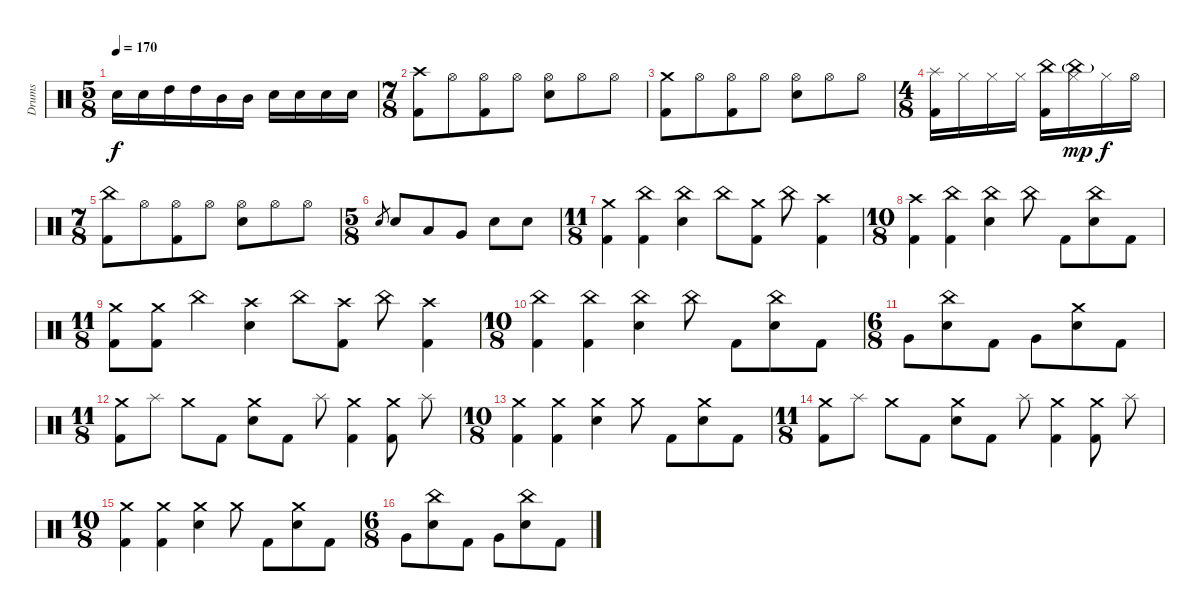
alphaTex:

\track ("Drums" "Drums") {instrument percussion}
\staff {score}
\articulation defaults
\ts (5 8)
\tempo 170
\clef neutral
\ks c "Electric Snare (hit)".16{dy f} "Electric Snare (hit)".16 "High Tom (hit)".16 "High Tom (hit)".16 "Mid Tom (hit)".16 "Mid Tom (hit)".16 "Electric Snare (hit)".16 "Electric Snare (hit)".16 "Electric Snare (hit)".16 "Electric Snare (hit)".16
|
\ts (7 8)
("Crash high (hit)" "Kick (hit) 2").8 "Hi-Hat (open)".8 ("Hi-Hat (open)" "Kick (hit) 2").8 "Hi-Hat (open)".8 ("Hi-Hat (open)" "Electric Snare (hit)").8 "Hi-Hat (open)".8 "Hi-Hat (open)".8 |
("Crash medium (hit)" "Kick (hit) 2").8 "Hi-Hat (open)".8 ("Hi-Hat (open)" "Kick (hit) 2").8 "Hi-Hat (open)".8 ("Hi-Hat (open)" "Electric Snare (hit)").8 "Hi-Hat (open)".8 "Hi-Hat (open)".8 |
\ts (4 8)
("Splash (hit)" "Kick (hit) 2").16 "Hi-Hat (closed)".16 "Hi-Hat (closed)".16 "Hi-Hat (closed)".16 ("China (hit)" "Kick (hit) 2").16 ("Hi-Hat (closed)" "China (hit)"{g}).16{dy mp} "Hi-Hat (closed)".16{dy f} "Hi-Hat (open)".16 |
\ts (7 8)
("China (hit)" "Kick (hit) 2").8 "Hi-Hat (open)".8 ("Hi-Hat (open)" "Kick (hit) 2").8 "Hi-Hat (open)".8 ("Hi-Hat (open)" "Electric Snare (hit)").8 "Hi-Hat (open)".8 "Hi-Hat (open)".8 |
\ts (5 8)
"Electric Snare (hit)".8{gr} "Electric Snare (hit)".8 "Low Tom (hit)".8 "Very Low Tom (hit)".8 "Electric Snare (hit)".8 "Electric Snare (hit)".8 |
\ts (11 8)
("Crash medium (hit)" "Kick (hit) 2").4 ("China (hit)" "Kick (hit) 2").4 ("China (hit)" "Electric Snare (hit)").4 "China (hit)".8 ("Crash medium (hit)" "Kick (hit) 2").8 "China (hit)".8 ("Crash high (hit)" "Kick (hit) 2").4 |
\ts (10 8)
("Crash high (hit)" "Kick (hit) 2").4 ("China (hit)" "Kick (hit) 2").4 ("China (hit)" "Electric Snare (hit)").4 "China (hit)".8 "Kick (hit) 2".8 ("China (hit)" "Electric Snare (hit)").8 "Kick (hit) 2".8 |
\ts (11 8)
("Crash medium (hit)" "Kick (hit) 2").8 ("Crash medium (hit)" "Kick (hit) 2").8 "China (hit)".4 ("Crash high (hit)" "Electric Snare (hit)").4 "China (hit)".8 ("Crash high (hit)" "Kick (hit) 2").8 "China (hit)".8 ("Crash high (hit)" "Kick (hit) 2").4 |
\ts (10 8)
("China (hit)" "Kick (hit) 2").4 ("China (hit)" "Kick (hit) 2").4 ("China (hit)" "Electric Snare (hit)").4 "China (hit)".8 "Kick (hit) 2".8 ("China (hit)" "Electric Snare (hit)").8 "Kick (hit) 2".8 |
\ts (6 8)
"Very Low Tom (hit)".8 ("China (hit)" "Electric Snare (hit)").8 "Kick (hit) 2".8 "Very Low Tom (hit)".8 ("Crash medium (hit)" "Electric Snare (hit)").8 "Kick (hit) 2".8 |
\ts (11 8)
("Crash medium (hit)" "Kick (hit) 2").8 "Splash (hit)".8 "Crash medium (hit)".8 "Kick (hit) 2".8 ("Crash medium (hit)" "Electric Snare (hit)").8 "Kick (hit) 2".8 "Splash (hit)".8 ("Crash medium (hit)" "Kick (hit) 2").4 ("Crash medium (hit)" "Kick (hit) 2").8 "Splash (hit)".8 |
\ts (10 8)
("Crash medium (hit)" "Kick (hit) 2").4 ("Crash medium (hit)" "Kick (hit) 2").4 ("Crash medium (hit)" "Electric Snare (hit)").4 "Crash medium (hit)".8 "Kick (hit) 2".8 ("Crash medium (hit)" "Electric Snare (hit)").8 "Kick (hit) 2".8 |
\ts (11 8)
("Crash medium (hit)" "Kick (hit) 2").8 "Splash (hit)".8 "Crash medium (hit)".8 "Kick (hit) 2".8 ("Crash medium (hit)" "Electric Snare (hit)").8 "Kick (hit) 2".8 "Splash (hit)".8 ("Crash medium (hit)" "Kick (hit) 2").4 ("Crash medium (hit)" "Kick (hit) 2").8 "Splash (hit)".8 |
\ts (10 8)
("Crash medium (hit)" "Kick (hit) 2").4 ("Crash medium (hit)" "Kick (hit) 2").4 ("Crash medium (hit)" "Electric Snare (hit)").4 "Crash medium (hit)".8 "Kick (hit) 2".8 ("Crash medium (hit)" "Electric Snare (hit)").8 "Kick (hit) 2".8 |
\ts (6 8)
"Very Low Tom (hit)".8 ("China (hit)" "Electric Snare (hit)").8 "Kick (hit) 2".8 "Very Low Tom (hit)".8 ("China (hit)" "Electric Snare (hit)").8 "Kick (hit) 2".8
